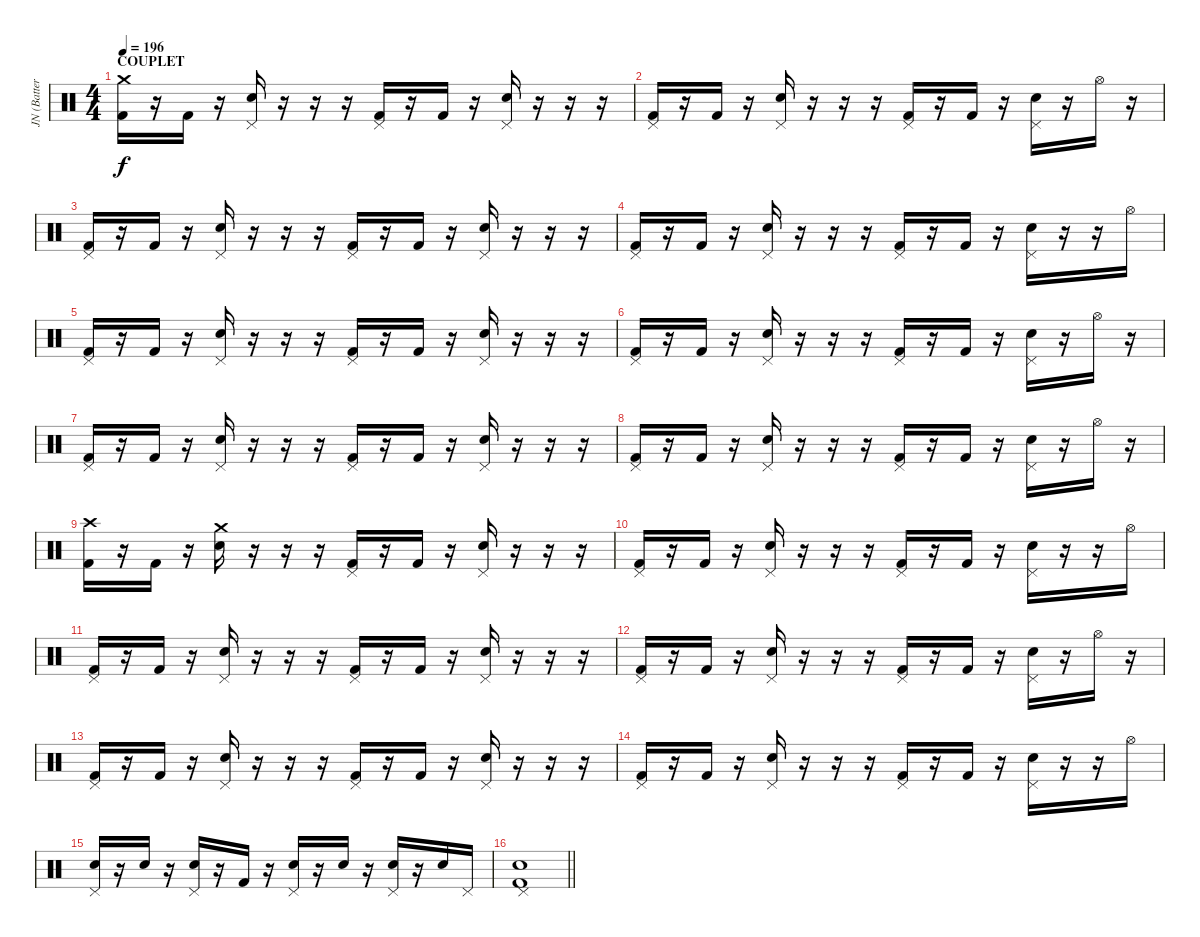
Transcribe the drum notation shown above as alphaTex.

\track ("JN (Batterie)" "JN (Batter") {instrument percussion}
\staff {score}
\articulation defaults
\ts (4 4)
\section ("" "COUPLET")
\tempo 196
\clef neutral
\ks c
("Crash medium (hit)" "Kick (hit) 2").16{dy f} r.16 "Kick (hit) 2".16 r.16 ("Pedal Hi-Hat (hit)" "Electric Snare (hit)").16 r.16 r.16 r.16 ("Pedal Hi-Hat (hit)" "Kick (hit) 2").16 r.16 "Kick (hit) 2".16 r.16 ("Pedal Hi-Hat (hit)" "Electric Snare (hit)").16 r.16 r.16 r.16 |
("Pedal Hi-Hat (hit)" "Kick (hit) 2").16 r.16 "Kick (hit) 2".16 r.16 ("Pedal Hi-Hat (hit)" "Electric Snare (hit)").16 r.16 r.16 r.16 ("Pedal Hi-Hat (hit)" "Kick (hit) 2").16 r.16 "Kick (hit) 2".16 r.16 ("Pedal Hi-Hat (hit)" "Electric Snare (hit)").16 r.16 "Hi-Hat (open)".16 r.16 |
("Pedal Hi-Hat (hit)" "Kick (hit) 2").16 r.16 "Kick (hit) 2".16 r.16 ("Pedal Hi-Hat (hit)" "Electric Snare (hit)").16 r.16 r.16 r.16 ("Pedal Hi-Hat (hit)" "Kick (hit) 2").16 r.16 "Kick (hit) 2".16 r.16 ("Pedal Hi-Hat (hit)" "Electric Snare (hit)").16 r.16 r.16 r.16 |
("Pedal Hi-Hat (hit)" "Kick (hit) 2").16 r.16 "Kick (hit) 2".16 r.16 ("Pedal Hi-Hat (hit)" "Electric Snare (hit)").16 r.16 r.16 r.16 ("Pedal Hi-Hat (hit)" "Kick (hit) 2").16 r.16 "Kick (hit) 2".16 r.16 ("Pedal Hi-Hat (hit)" "Electric Snare (hit)").16 r.16 r.16 "Hi-Hat (open)".16 |
("Pedal Hi-Hat (hit)" "Kick (hit) 2").16 r.16 "Kick (hit) 2".16 r.16 ("Pedal Hi-Hat (hit)" "Electric Snare (hit)").16 r.16 r.16 r.16 ("Pedal Hi-Hat (hit)" "Kick (hit) 2").16 r.16 "Kick (hit) 2".16 r.16 ("Pedal Hi-Hat (hit)" "Electric Snare (hit)").16 r.16 r.16 r.16 |
("Pedal Hi-Hat (hit)" "Kick (hit) 2").16 r.16 "Kick (hit) 2".16 r.16 ("Pedal Hi-Hat (hit)" "Electric Snare (hit)").16 r.16 r.16 r.16 ("Pedal Hi-Hat (hit)" "Kick (hit) 2").16 r.16 "Kick (hit) 2".16 r.16 ("Pedal Hi-Hat (hit)" "Electric Snare (hit)").16 r.16 "Hi-Hat (open)".16 r.16 |
("Pedal Hi-Hat (hit)" "Kick (hit) 2").16 r.16 "Kick (hit) 2".16 r.16 ("Pedal Hi-Hat (hit)" "Electric Snare (hit)").16 r.16 r.16 r.16 ("Pedal Hi-Hat (hit)" "Kick (hit) 2").16 r.16 "Kick (hit) 2".16 r.16 ("Pedal Hi-Hat (hit)" "Electric Snare (hit)").16 r.16 r.16 r.16 |
("Pedal Hi-Hat (hit)" "Kick (hit) 2").16 r.16 "Kick (hit) 2".16 r.16 ("Pedal Hi-Hat (hit)" "Electric Snare (hit)").16 r.16 r.16 r.16 ("Pedal Hi-Hat (hit)" "Kick (hit) 2").16 r.16 "Kick (hit) 2".16 r.16 ("Pedal Hi-Hat (hit)" "Electric Snare (hit)").16 r.16 "Hi-Hat (open)".16 r.16 |
("Crash high (hit)" "Kick (hit) 2").16 r.16 "Kick (hit) 2".16 r.16 ("Crash medium (hit)" "Electric Snare (hit)").16 r.16 r.16 r.16 ("Pedal Hi-Hat (hit)" "Kick (hit) 2").16 r.16 "Kick (hit) 2".16 r.16 ("Pedal Hi-Hat (hit)" "Electric Snare (hit)").16 r.16 r.16 r.16 |
("Pedal Hi-Hat (hit)" "Kick (hit) 2").16 r.16 "Kick (hit) 2".16 r.16 ("Pedal Hi-Hat (hit)" "Electric Snare (hit)").16 r.16 r.16 r.16 ("Pedal Hi-Hat (hit)" "Kick (hit) 2").16 r.16 "Kick (hit) 2".16 r.16 ("Pedal Hi-Hat (hit)" "Electric Snare (hit)").16 r.16 r.16 "Hi-Hat (open)".16 |
("Pedal Hi-Hat (hit)" "Kick (hit) 2").16 r.16 "Kick (hit) 2".16 r.16 ("Pedal Hi-Hat (hit)" "Electric Snare (hit)").16 r.16 r.16 r.16 ("Pedal Hi-Hat (hit)" "Kick (hit) 2").16 r.16 "Kick (hit) 2".16 r.16 ("Pedal Hi-Hat (hit)" "Electric Snare (hit)").16 r.16 r.16 r.16 |
("Pedal Hi-Hat (hit)" "Kick (hit) 2").16 r.16 "Kick (hit) 2".16 r.16 ("Pedal Hi-Hat (hit)" "Electric Snare (hit)").16 r.16 r.16 r.16 ("Pedal Hi-Hat (hit)" "Kick (hit) 2").16 r.16 "Kick (hit) 2".16 r.16 ("Pedal Hi-Hat (hit)" "Electric Snare (hit)").16 r.16 "Hi-Hat (open)".16 r.16 |
("Pedal Hi-Hat (hit)" "Kick (hit) 2").16 r.16 "Kick (hit) 2".16 r.16 ("Pedal Hi-Hat (hit)" "Electric Snare (hit)").16 r.16 r.16 r.16 ("Pedal Hi-Hat (hit)" "Kick (hit) 2").16 r.16 "Kick (hit) 2".16 r.16 ("Pedal Hi-Hat (hit)" "Electric Snare (hit)").16 r.16 r.16 r.16 |
("Pedal Hi-Hat (hit)" "Kick (hit) 2").16 r.16 "Kick (hit) 2".16 r.16 ("Pedal Hi-Hat (hit)" "Electric Snare (hit)").16 r.16 r.16 r.16 ("Pedal Hi-Hat (hit)" "Kick (hit) 2").16 r.16 "Kick (hit) 2".16 r.16 ("Pedal Hi-Hat (hit)" "Electric Snare (hit)").16 r.16 r.16 "Hi-Hat (open)".16 |
("Pedal Hi-Hat (hit)" "Electric Snare (hit)").16 r.16 "Electric Snare (hit)".16 r.16 ("Pedal Hi-Hat (hit)" "Electric Snare (hit)").16 r.16 "Kick (hit) 2".16 r.16 ("Pedal Hi-Hat (hit)" "Electric Snare (hit)").16 r.16 "Electric Snare (hit)".16 r.16 ("Pedal Hi-Hat (hit)" "Electric Snare (hit)").16 r.16 "Electric Snare (hit)".16 "Pedal Hi-Hat (hit)".16 |
\barLineRight lightlight
("Pedal Hi-Hat (hit)" "Electric Snare (hit)" "Kick (hit) 2").1
